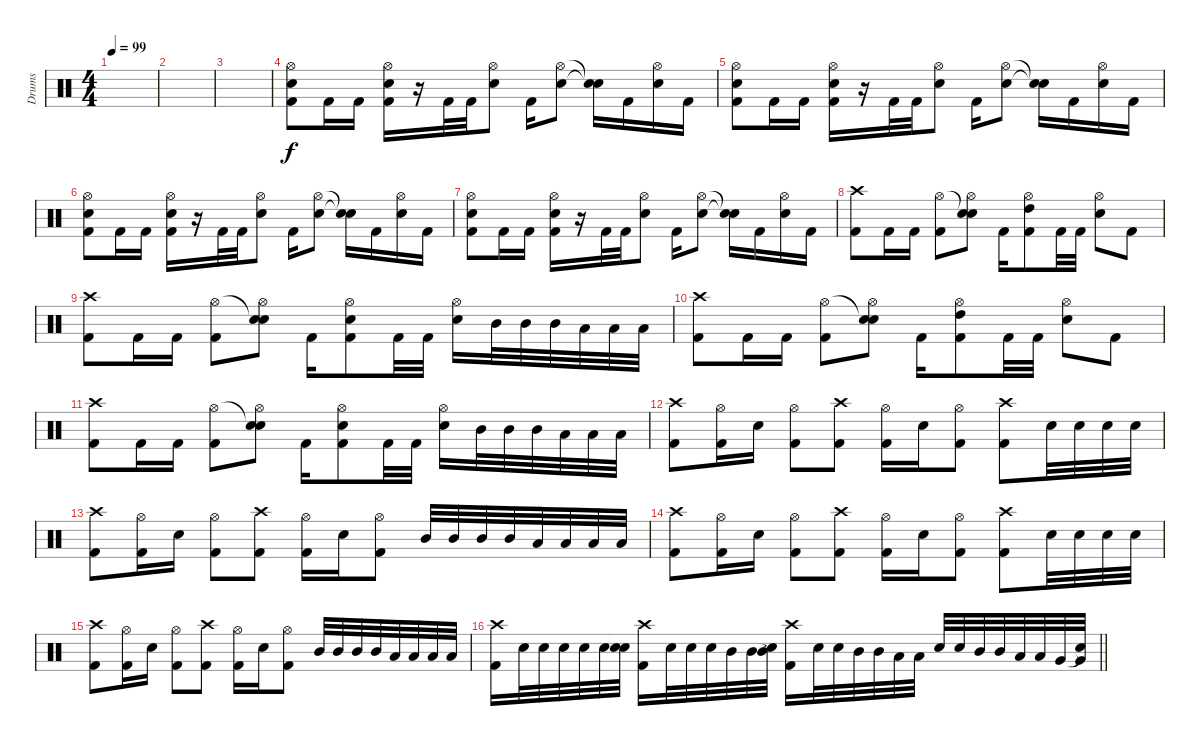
\track ("Drums" "Drums") {instrument percussion}
\staff {score}
\articulation defaults
\ts (4 4)
\tempo 99
\clef neutral
\ks c
|
|
|
("Hi-Hat (open)" "Snare (hit) 2" "Kick (hit) 2").8 "Kick (hit) 2".16 "Kick (hit) 2".16 ("Hi-Hat (open)" "Snare (hit) 2" "Kick (hit) 2").16 r.16 "Kick (hit) 2".32 "Kick (hit) 2".32 ("Hi-Hat (open)" "Snare (hit) 2").8 "Kick (hit) 2".16 ("Hi-Hat (open)" "Snare (hit) 2").8 ("Snare (hit)"{t} "Snare (hit)"{t}).16 "Kick (hit) 2".16 ("Hi-Hat (open)" "Snare (hit) 2").16 "Kick (hit) 2".16 |
("Hi-Hat (open)" "Snare (hit) 2" "Kick (hit) 2").8 "Kick (hit) 2".16 "Kick (hit) 2".16 ("Hi-Hat (open)" "Snare (hit) 2" "Kick (hit) 2").16 r.16 "Kick (hit) 2".32 "Kick (hit) 2".32 ("Hi-Hat (open)" "Snare (hit) 2").8 "Kick (hit) 2".16 ("Hi-Hat (open)" "Snare (hit) 2").8 ("Snare (hit)"{t} "Snare (hit)"{t}).16 "Kick (hit) 2".16 ("Hi-Hat (open)" "Snare (hit) 2").16 "Kick (hit) 2".16 |
("Hi-Hat (open)" "Snare (hit) 2" "Kick (hit) 2").8 "Kick (hit) 2".16 "Kick (hit) 2".16 ("Hi-Hat (open)" "Snare (hit) 2" "Kick (hit) 2").16 r.16 "Kick (hit) 2".32 "Kick (hit) 2".32 ("Hi-Hat (open)" "Snare (hit) 2").8 "Kick (hit) 2".16 ("Hi-Hat (open)" "Snare (hit) 2").8 ("Snare (hit)"{t} "Snare (hit)"{t}).16 "Kick (hit) 2".16 ("Hi-Hat (open)" "Snare (hit) 2").16 "Kick (hit) 2".16 |
("Hi-Hat (open)" "Snare (hit) 2" "Kick (hit) 2").8 "Kick (hit) 2".16 "Kick (hit) 2".16 ("Hi-Hat (open)" "Snare (hit) 2" "Kick (hit) 2").16 r.16 "Kick (hit) 2".32 "Kick (hit) 2".32 ("Hi-Hat (open)" "Snare (hit) 2").8 "Kick (hit) 2".16 ("Hi-Hat (open)" "Snare (hit) 2").8 ("Snare (hit)"{t} "Snare (hit)"{t}).16 "Kick (hit) 2".16 ("Hi-Hat (open)" "Snare (hit) 2").16 "Kick (hit) 2".16 |
("Crash high (hit)" "Kick (hit) 2").8 "Kick (hit) 2".16 "Kick (hit) 2".16 ("Hi-Hat (open)" "Kick (hit) 2").8 ("Snare (hit)"{t} "Hi-Hat (open)" "Snare (hit) 2").8 "Kick (hit) 2".16 ("Hi-Hat (open)" "High Tom (hit)" "Kick (hit) 2").8 "Kick (hit) 2".32 "Kick (hit) 2".32 ("Hi-Hat (open)" "Snare (hit) 2").8 "Kick (hit) 2".8 |
("Crash high (hit)" "Kick (hit) 2").8 "Kick (hit) 2".16 "Kick (hit) 2".16 ("Hi-Hat (open)" "Kick (hit) 2").8 ("Snare (hit)"{t} "Hi-Hat (open)" "Snare (hit) 2").8 "Kick (hit) 2".16 ("Hi-Hat (open)" "Snare (hit) 2" "Kick (hit) 2").8 "Kick (hit) 2".32 "Kick (hit) 2".32 ("Hi-Hat (open)" "Snare (hit) 2").16 "Mid Tom (hit)".32 "Mid Tom (hit)".32 "Mid Tom (hit)".32 "Low Tom (hit)".32 "Low Tom (hit)".32 "Low Tom (hit)".32 |
("Crash high (hit)" "Kick (hit) 2").8 "Kick (hit) 2".16 "Kick (hit) 2".16 ("Hi-Hat (open)" "Kick (hit) 2").8 ("Snare (hit)"{t} "Hi-Hat (open)" "Snare (hit) 2").8 "Kick (hit) 2".16 ("Hi-Hat (open)" "High Tom (hit)" "Kick (hit) 2").8 "Kick (hit) 2".32 "Kick (hit) 2".32 ("Hi-Hat (open)" "Snare (hit) 2").8 "Kick (hit) 2".8 |
("Crash high (hit)" "Kick (hit) 2").8 "Kick (hit) 2".16 "Kick (hit) 2".16 ("Hi-Hat (open)" "Kick (hit) 2").8 ("Snare (hit)"{t} "Hi-Hat (open)" "Snare (hit) 2").8 "Kick (hit) 2".16 ("Hi-Hat (open)" "Snare (hit) 2" "Kick (hit) 2").8 "Kick (hit) 2".32 "Kick (hit) 2".32 ("Hi-Hat (open)" "Snare (hit) 2").16 "Mid Tom (hit)".32 "Mid Tom (hit)".32 "Mid Tom (hit)".32 "Low Tom (hit)".32 "Low Tom (hit)".32 "Low Tom (hit)".32 |
("Crash high (hit)" "Kick (hit) 2").8 ("Hi-Hat (open)" "Kick (hit) 2").16 "Snare (hit) 2".16 ("Hi-Hat (open)" "Kick (hit) 2").8 ("Crash high (hit)" "Kick (hit) 2").8 ("Hi-Hat (open)" "Kick (hit) 2").16 "Snare (hit) 2".16 ("Hi-Hat (open)" "Kick (hit) 2").8 ("Crash high (hit)" "Kick (hit) 2").8 "Snare (hit) 2".32 "Snare (hit) 2".32 "Snare (hit) 2".32 "Snare (hit) 2".32 |
("Crash high (hit)" "Kick (hit) 2").8 ("Hi-Hat (open)" "Kick (hit) 2").16 "Snare (hit) 2".16 ("Hi-Hat (open)" "Kick (hit) 2").8 ("Crash high (hit)" "Kick (hit) 2").8 ("Hi-Hat (open)" "Kick (hit) 2").16 "Snare (hit) 2".16 ("Hi-Hat (open)" "Kick (hit) 2").8 "Mid Tom (hit)".32 "Mid Tom (hit)".32 "Mid Tom (hit)".32 "Mid Tom (hit)".32 "Low Tom (hit)".32 "Low Tom (hit)".32 "Low Tom (hit)".32 "Low Tom (hit)".32 |
("Crash high (hit)" "Kick (hit) 2").8 ("Hi-Hat (open)" "Kick (hit) 2").16 "Snare (hit) 2".16 ("Hi-Hat (open)" "Kick (hit) 2").8 ("Crash high (hit)" "Kick (hit) 2").8 ("Hi-Hat (open)" "Kick (hit) 2").16 "Snare (hit) 2".16 ("Hi-Hat (open)" "Kick (hit) 2").8 ("Crash high (hit)" "Kick (hit) 2").8 "Snare (hit) 2".32 "Snare (hit) 2".32 "Snare (hit) 2".32 "Snare (hit) 2".32 |
("Crash high (hit)" "Kick (hit) 2").8 ("Hi-Hat (open)" "Kick (hit) 2").16 "Snare (hit) 2".16 ("Hi-Hat (open)" "Kick (hit) 2").8 ("Crash high (hit)" "Kick (hit) 2").8 ("Hi-Hat (open)" "Kick (hit) 2").16 "Snare (hit) 2".16 ("Hi-Hat (open)" "Kick (hit) 2").8 "Mid Tom (hit)".32 "Mid Tom (hit)".32 "Mid Tom (hit)".32 "Mid Tom (hit)".32 "Low Tom (hit)".32 "Low Tom (hit)".32 "Low Tom (hit)".32 "Low Tom (hit)".32 |
\barLineRight lightlight
("Crash high (hit)" "Kick (hit) 2").16 "Snare (hit) 2".32 "Snare (hit) 2".32 "Snare (hit) 2".32 "Snare (hit) 2".32 "Snare (hit) 2".32 ("Snare (hit)"{t} "Snare (hit) 2").32 ("Crash high (hit)" "Kick (hit) 2").16 "Snare (hit) 2".32 "Snare (hit) 2".32 "Snare (hit) 2".32 "Mid Tom (hit)".32 "Mid Tom (hit)".32 ("Snare (hit)"{t} "Mid Tom (hit)").32 ("Crash high (hit)" "Kick (hit) 2").16 "Snare (hit) 2".32 "Snare (hit) 2".32 "Mid Tom (hit)".32 "Mid Tom (hit)".32 "Low Tom (hit)".32 "Low Tom (hit)".32 "Snare (hit) 2".32 "Snare (hit) 2".32 "Mid Tom (hit)".32 "Mid Tom (hit)".32 "Low Tom (hit)".32 "Low Tom (hit)".32 "Very Low Tom (hit)".32 ("Snare (hit)"{t} "Very Low Tom (hit)").32
